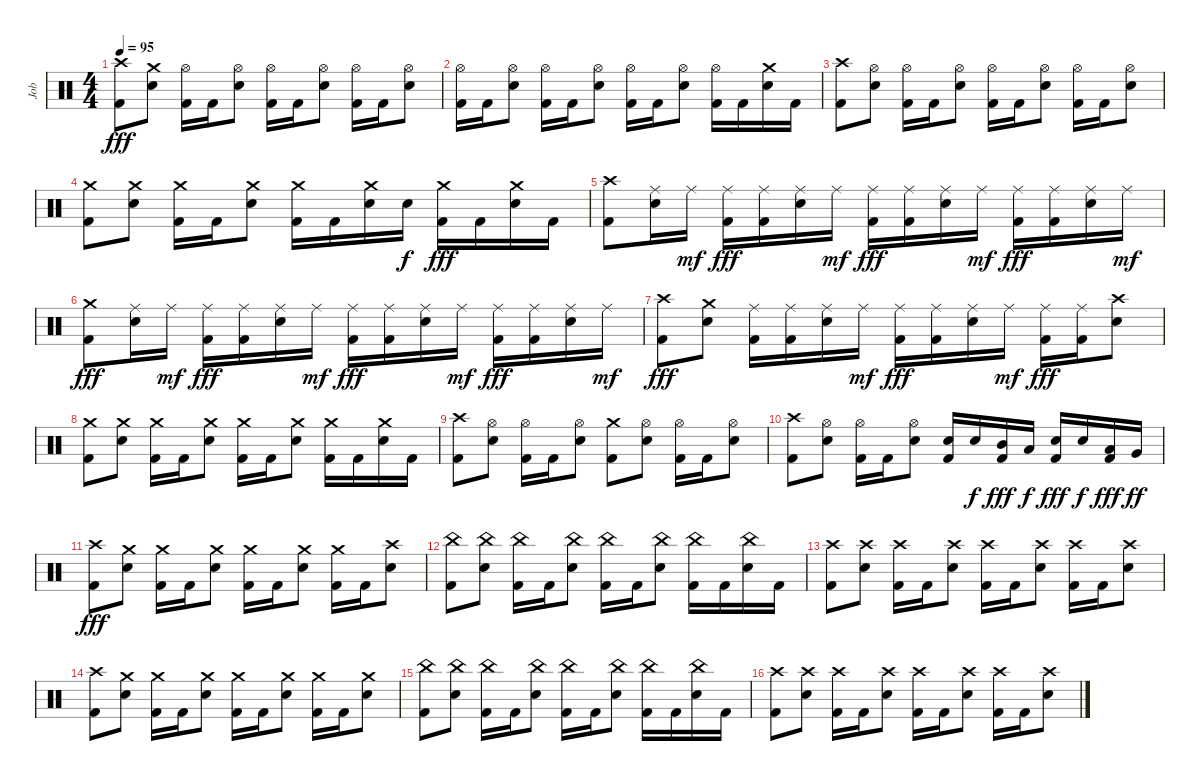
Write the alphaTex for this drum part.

\track ("Job" "Job") {instrument percussion}
\staff {score}
\articulation defaults
\ts (4 4)
\tempo 95
\clef neutral
\ks c
("Crash high (hit)" "Kick (hit) 2").8{dy fff} ("Crash medium (hit)" "Electric Snare (hit)").8 ("Hi-Hat (open)" "Kick (hit) 2").16 "Kick (hit) 2".16 ("Hi-Hat (open)" "Electric Snare (hit)").8 ("Hi-Hat (open)" "Kick (hit) 2").16 "Kick (hit) 2".16 ("Hi-Hat (open)" "Electric Snare (hit)").8 ("Hi-Hat (open)" "Kick (hit) 2").16 "Kick (hit) 2".16 ("Hi-Hat (open)" "Electric Snare (hit)").8 |
("Hi-Hat (open)" "Kick (hit) 2").16 "Kick (hit) 2".16 ("Hi-Hat (open)" "Electric Snare (hit)").8 ("Hi-Hat (open)" "Kick (hit) 2").16 "Kick (hit) 2".16 ("Hi-Hat (open)" "Electric Snare (hit)").8 ("Hi-Hat (open)" "Kick (hit) 2").16 "Kick (hit) 2".16 ("Hi-Hat (open)" "Electric Snare (hit)").8 ("Hi-Hat (open)" "Kick (hit) 2").16 "Kick (hit) 2".16 ("Crash medium (hit)" "Electric Snare (hit)").16 "Kick (hit) 2".16 |
("Crash high (hit)" "Kick (hit) 2").8 ("Hi-Hat (open)" "Electric Snare (hit)").8 ("Hi-Hat (open)" "Kick (hit) 2").16 "Kick (hit) 2".16 ("Hi-Hat (open)" "Electric Snare (hit)").8 ("Hi-Hat (open)" "Kick (hit) 2").16 "Kick (hit) 2".16 ("Hi-Hat (open)" "Electric Snare (hit)").8 ("Hi-Hat (open)" "Kick (hit) 2").16 "Kick (hit) 2".16 ("Hi-Hat (open)" "Electric Snare (hit)").8 |
("Crash medium (hit)" "Kick (hit) 2").8 ("Crash medium (hit)" "Electric Snare (hit)").8 ("Crash medium (hit)" "Kick (hit) 2").16 "Kick (hit) 2".16 ("Crash medium (hit)" "Electric Snare (hit)").8 ("Crash medium (hit)" "Kick (hit) 2").16 "Kick (hit) 2".16 ("Crash medium (hit)" "Electric Snare (hit)").16 "Electric Snare (hit)".16{dy f} ("Crash medium (hit)" "Kick (hit) 2").16{dy fff} "Kick (hit) 2".16 ("Crash medium (hit)" "Electric Snare (hit)").16 "Kick (hit) 2".16 |
("Crash high (hit)" "Kick (hit) 2").8 ("Ride (middle)" "Electric Snare (hit)").16 "Ride (middle)".16{dy mf} ("Ride (middle)" "Kick (hit) 2").16{dy fff} ("Ride (middle)" "Kick (hit) 2").16 ("Ride (middle)" "Electric Snare (hit)").16 "Ride (middle)".16{dy mf} ("Ride (middle)" "Kick (hit) 2").16{dy fff} ("Ride (middle)" "Kick (hit) 2").16 ("Ride (middle)" "Electric Snare (hit)").16 "Ride (middle)".16{dy mf} ("Ride (middle)" "Kick (hit) 2").16{dy fff} ("Ride (middle)" "Kick (hit) 2").16 ("Ride (middle)" "Electric Snare (hit)").16 "Ride (middle)".16{dy mf} |
("Crash medium (hit)" "Kick (hit) 2").8{dy fff} ("Ride (middle)" "Electric Snare (hit)").16 "Ride (middle)".16{dy mf} ("Ride (middle)" "Kick (hit) 2").16{dy fff} ("Ride (middle)" "Kick (hit) 2").16 ("Ride (middle)" "Electric Snare (hit)").16 "Ride (middle)".16{dy mf} ("Ride (middle)" "Kick (hit) 2").16{dy fff} ("Ride (middle)" "Kick (hit) 2").16 ("Ride (middle)" "Electric Snare (hit)").16 "Ride (middle)".16{dy mf} ("Ride (middle)" "Kick (hit) 2").16{dy fff} ("Ride (middle)" "Kick (hit) 2").16 ("Ride (middle)" "Electric Snare (hit)").16 "Ride (middle)".16{dy mf} |
("Crash high (hit)" "Kick (hit) 2").8{dy fff} ("Crash medium (hit)" "Electric Snare (hit)").8 ("Ride (middle)" "Kick (hit) 2").16 ("Ride (middle)" "Kick (hit) 2").16 ("Ride (middle)" "Electric Snare (hit)").16 "Ride (middle)".16{dy mf} ("Ride (middle)" "Kick (hit) 2").16{dy fff} ("Ride (middle)" "Kick (hit) 2").16 ("Ride (middle)" "Electric Snare (hit)").16 "Ride (middle)".16{dy mf} ("Ride (middle)" "Kick (hit) 2").16{dy fff} ("Ride (middle)" "Kick (hit) 2").16 ("Crash high (hit)" "Electric Snare (hit)").8 |
("Crash medium (hit)" "Kick (hit) 2").8 ("Crash medium (hit)" "Electric Snare (hit)").8 ("Crash medium (hit)" "Kick (hit) 2").16 "Kick (hit) 2".16 ("Crash medium (hit)" "Electric Snare (hit)").8 ("Crash medium (hit)" "Kick (hit) 2").16 "Kick (hit) 2".16 ("Crash medium (hit)" "Electric Snare (hit)").8 ("Crash medium (hit)" "Kick (hit) 2").16 "Kick (hit) 2".16 ("Crash medium (hit)" "Electric Snare (hit)").16 "Kick (hit) 2".16 |
("Crash high (hit)" "Kick (hit) 2").8 ("Hi-Hat (open)" "Electric Snare (hit)").8 ("Hi-Hat (open)" "Kick (hit) 2").16 "Kick (hit) 2".16 ("Hi-Hat (open)" "Electric Snare (hit)").8 ("Crash medium (hit)" "Kick (hit) 2").8 ("Hi-Hat (open)" "Electric Snare (hit)").8 ("Hi-Hat (open)" "Kick (hit) 2").16 "Kick (hit) 2".16 ("Hi-Hat (open)" "Electric Snare (hit)").8 |
("Crash high (hit)" "Kick (hit) 2").8 ("Hi-Hat (open)" "Electric Snare (hit)").8 ("Hi-Hat (open)" "Kick (hit) 2").16 "Kick (hit) 2".16 ("Hi-Hat (open)" "Electric Snare (hit)").8 ("Electric Snare (hit)" "Kick (hit) 2").16 "Electric Snare (hit)".16{dy f} ("Mid Tom (hit)" "Kick (hit) 2").16{dy fff} "Low Tom (hit)".16{dy f} ("Electric Snare (hit)" "Kick (hit) 2").16{dy fff} "Electric Snare (hit)".16{dy f} ("Low Tom (hit)" "Kick (hit) 2").16{dy fff} "Very Low Tom (hit)".16{dy ff} |
("Crash high (hit)" "Kick (hit) 2").8{dy fff} ("Crash medium (hit)" "Electric Snare (hit)").8 ("Crash medium (hit)" "Kick (hit) 2").16 "Kick (hit) 2".16 ("Crash medium (hit)" "Electric Snare (hit)").8 ("Crash medium (hit)" "Kick (hit) 2").16 "Kick (hit) 2".16 ("Crash medium (hit)" "Electric Snare (hit)").8 ("Crash medium (hit)" "Kick (hit) 2").16 "Kick (hit) 2".16 ("Crash high (hit)" "Electric Snare (hit)").8 |
("China (hit)" "Kick (hit) 2").8 ("China (hit)" "Electric Snare (hit)").8 ("China (hit)" "Kick (hit) 2").16 "Kick (hit) 2".16 ("China (hit)" "Electric Snare (hit)").8 ("China (hit)" "Kick (hit) 2").16 "Kick (hit) 2".16 ("China (hit)" "Electric Snare (hit)").8 ("China (hit)" "Kick (hit) 2").16 "Kick (hit) 2".16 ("China (hit)" "Electric Snare (hit)").16 "Kick (hit) 2".16 |
("Crash high (hit)" "Kick (hit) 2").8 ("Crash high (hit)" "Electric Snare (hit)").8 ("Crash high (hit)" "Kick (hit) 2").16 "Kick (hit) 2".16 ("Crash high (hit)" "Electric Snare (hit)").8 ("Crash high (hit)" "Kick (hit) 2").16 "Kick (hit) 2".16 ("Crash high (hit)" "Electric Snare (hit)").8 ("Crash high (hit)" "Kick (hit) 2").16 "Kick (hit) 2".16 ("Crash high (hit)" "Electric Snare (hit)").8 |
("Crash high (hit)" "Kick (hit) 2").8 ("Crash medium (hit)" "Electric Snare (hit)").8 ("Crash medium (hit)" "Kick (hit) 2").16 "Kick (hit) 2".16 ("Crash medium (hit)" "Electric Snare (hit)").8 ("Crash medium (hit)" "Kick (hit) 2").16 "Kick (hit) 2".16 ("Crash medium (hit)" "Electric Snare (hit)").8 ("Crash medium (hit)" "Kick (hit) 2").16 "Kick (hit) 2".16 ("Crash medium (hit)" "Electric Snare (hit)").8 |
("China (hit)" "Kick (hit) 2").8 ("China (hit)" "Electric Snare (hit)").8 ("China (hit)" "Kick (hit) 2").16 "Kick (hit) 2".16 ("China (hit)" "Electric Snare (hit)").8 ("China (hit)" "Kick (hit) 2").16 "Kick (hit) 2".16 ("China (hit)" "Electric Snare (hit)").8 ("China (hit)" "Kick (hit) 2").16 "Kick (hit) 2".16 ("China (hit)" "Electric Snare (hit)").16 "Kick (hit) 2".16 |
("Crash high (hit)" "Kick (hit) 2").8 ("Crash high (hit)" "Electric Snare (hit)").8 ("Crash high (hit)" "Kick (hit) 2").16 "Kick (hit) 2".16 ("Crash high (hit)" "Electric Snare (hit)").8 ("Crash high (hit)" "Kick (hit) 2").16 "Kick (hit) 2".16 ("Crash high (hit)" "Electric Snare (hit)").8 ("Crash high (hit)" "Kick (hit) 2").16 "Kick (hit) 2".16 ("Crash high (hit)" "Electric Snare (hit)").8
